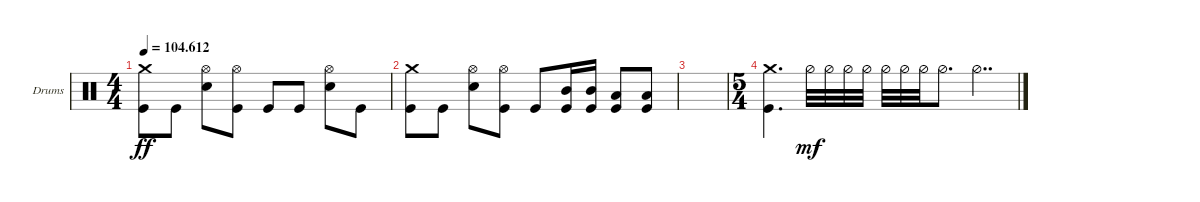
\defaultSystemsLayout 4
\bracketExtendMode groupsimilarinstruments
\firstSystemTrackNameOrientation horizontal
\otherSystemsTrackNameOrientation horizontal
\track ("Drumkit" "Drums") {instrument percussion}
\staff {score}
\articulation defaults
\ts (4 4)
\tempo
104.612
\accidentals auto
\clef neutral
\ottava regular
\simile none
\ks c
("Kick (hit)" "Crash medium (hit)").8{dy ff} "Kick (hit)".8 ("Snare (hit) 2" "Hi-Hat (open)").8 ("Kick (hit)" "Hi-Hat (open)").8 "Kick (hit)".8 "Kick (hit)".8 ("Snare (hit) 2" "Hi-Hat (open)").8 "Kick (hit)".8 |
("Kick (hit)" "Crash medium (hit)").8 "Kick (hit)".8 ("Snare (hit) 2" "Hi-Hat (open)").8 ("Kick (hit)" "Hi-Hat (open)").8 "Kick (hit)".8 ("Mid Tom (hit)" "Kick (hit)").16 ("Mid Tom (hit)" "Kick (hit)").16 ("Low Tom (hit)" "Kick (hit)").8 ("Low Tom (hit)" "Kick (hit)").8 |
|
\ts (5 4)
("Kick (hit)" "Crash medium (hit)").4{d} "Hi-Hat (half)".32{dy mf} "Hi-Hat (half)".32 "Hi-Hat (half)".32 "Hi-Hat (half)".32 "Hi-Hat (half)".32 "Hi-Hat (half)".32 "Hi-Hat (half)".32 "Hi-Hat (half)".8{d} "Hi-Hat (half)".4{dd}
